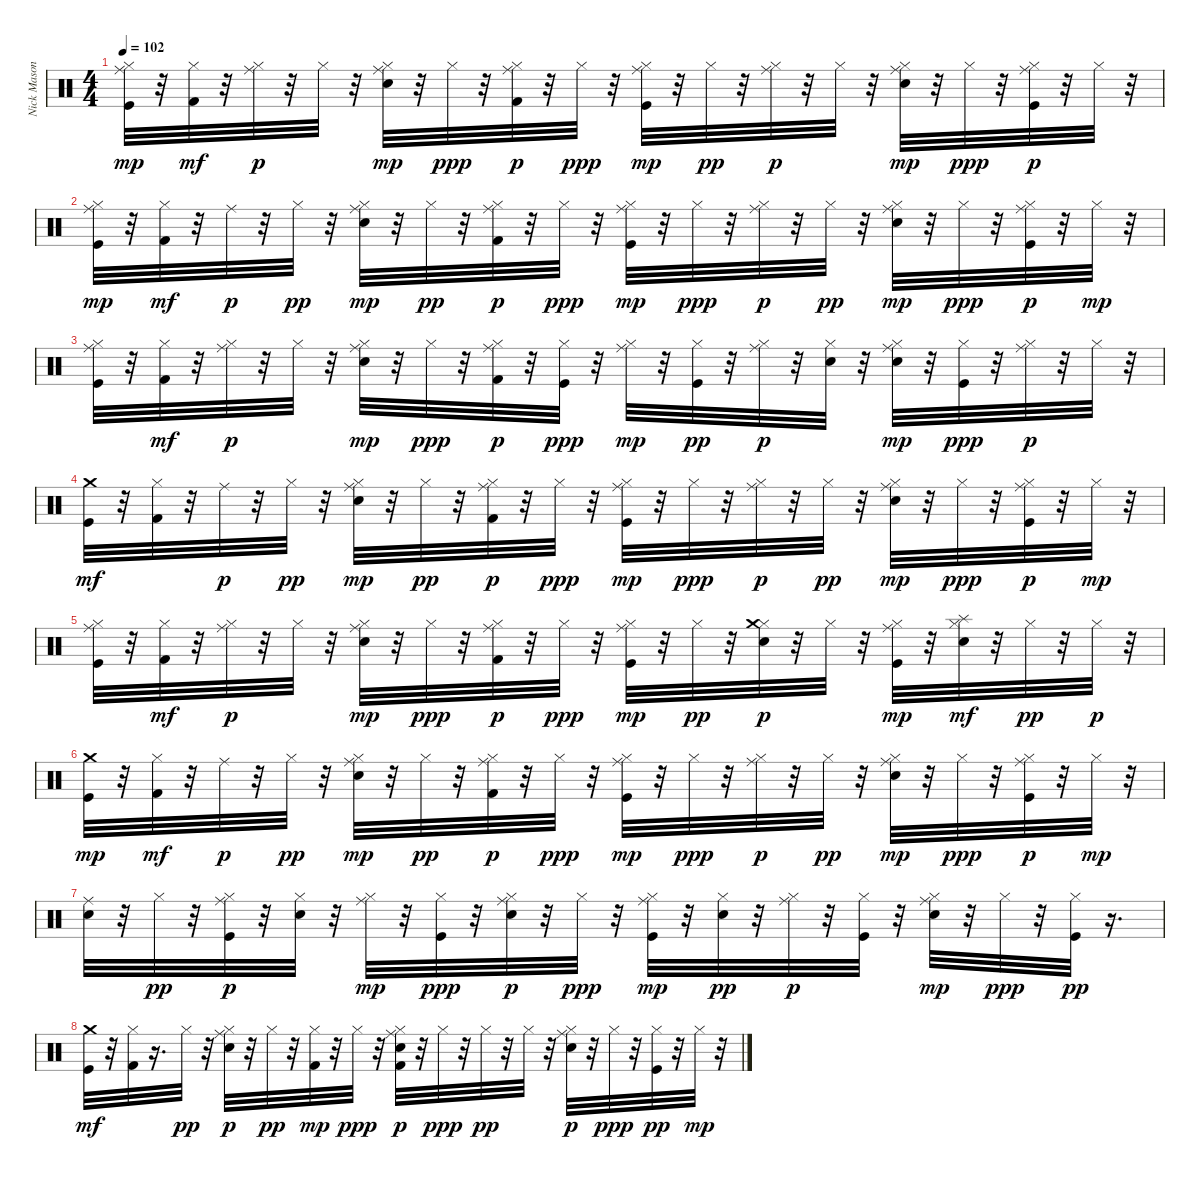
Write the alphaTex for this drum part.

\track ("Nick Mason / Gary Wallis" "Nick Mason") {instrument percussion}
\staff {score}
\articulation defaults
\ts (4 4)
\tempo 102
\clef neutral
\ks c
("Kick (hit)" "Hi-Hat (closed)" "Ride (middle)").32{dy mp} r.32 ("Hi-Hat (closed)" "Kick (hit) 2").32{dy mf} r.32 ("Hi-Hat (closed)" "Ride (middle)").32{dy p} r.32 "Hi-Hat (closed)".32 r.32 ("Electric Snare (hit)" "Hi-Hat (closed)" "Ride (middle)").32{dy mp} r.32 "Hi-Hat (closed)".32{dy ppp} r.32 ("Kick (hit) 2" "Hi-Hat (closed)" "Ride (middle)").32{dy p} r.32 "Hi-Hat (closed)".32{dy ppp} r.32 ("Kick (hit)" "Hi-Hat (closed)" "Ride (middle)").32{dy mp} r.32 "Hi-Hat (closed)".32{dy pp} r.32 ("Hi-Hat (closed)" "Ride (middle)").32{dy p} r.32 "Hi-Hat (closed)".32 r.32 ("Electric Snare (hit)" "Hi-Hat (closed)" "Ride (middle)").32{dy mp} r.32 "Hi-Hat (closed)".32{dy ppp} r.32 ("Kick (hit)" "Hi-Hat (closed)" "Ride (middle)").32{dy p} r.32 "Hi-Hat (closed)".32 r.32 |
("Kick (hit)" "Hi-Hat (closed)" "Ride (middle)").32{dy mp} r.32 ("Hi-Hat (closed)" "Kick (hit) 2").32{dy mf} r.32 "Ride (middle)".32{dy p} r.32 "Hi-Hat (closed)".32{dy pp} r.32 ("Electric Snare (hit)" "Hi-Hat (closed)" "Ride (middle)").32{dy mp} r.32 "Hi-Hat (closed)".32{dy pp} r.32 ("Kick (hit) 2" "Hi-Hat (closed)" "Ride (middle)").32{dy p} r.32 "Hi-Hat (closed)".32{dy ppp} r.32 ("Kick (hit)" "Hi-Hat (closed)" "Ride (middle)").32{dy mp} r.32 "Hi-Hat (closed)".32{dy ppp} r.32 ("Hi-Hat (closed)" "Ride (middle)").32{dy p} r.32 "Hi-Hat (closed)".32{dy pp} r.32 ("Electric Snare (hit)" "Hi-Hat (closed)" "Ride (middle)").32{dy mp} r.32 "Hi-Hat (closed)".32{dy ppp} r.32 ("Kick (hit)" "Hi-Hat (closed)" "Ride (middle)").32{dy p} r.32 "Hi-Hat (closed)".32{dy mp} r.32 |
("Kick (hit)" "Hi-Hat (closed)" "Ride (middle)").32 r.32 ("Hi-Hat (closed)" "Kick (hit) 2").32{dy mf} r.32 ("Hi-Hat (closed)" "Ride (middle)").32{dy p} r.32 "Hi-Hat (closed)".32 r.32 ("Electric Snare (hit)" "Hi-Hat (closed)" "Ride (middle)").32{dy mp} r.32 "Hi-Hat (closed)".32{dy ppp} r.32 ("Kick (hit) 2" "Hi-Hat (closed)" "Ride (middle)").32{dy p} r.32 ("Kick (hit)" "Hi-Hat (closed)").32{dy ppp} r.32 ("Hi-Hat (closed)" "Ride (middle)").32{dy mp} r.32 ("Kick (hit)" "Hi-Hat (closed)").32{dy pp} r.32 ("Hi-Hat (closed)" "Ride (middle)").32{dy p} r.32 ("Electric Snare (hit)" "Hi-Hat (closed)").32 r.32 ("Electric Snare (hit)" "Hi-Hat (closed)" "Ride (middle)").32{dy mp} r.32 ("Kick (hit)" "Hi-Hat (closed)").32{dy ppp} r.32 ("Hi-Hat (closed)" "Ride (middle)").32{dy p} r.32 "Hi-Hat (closed)".32 r.32 |
("Kick (hit)" "Crash medium (hit)").32{dy mf} r.32 ("Hi-Hat (closed)" "Kick (hit) 2").32 r.32 "Ride (middle)".32{dy p} r.32 "Hi-Hat (closed)".32{dy pp} r.32 ("Electric Snare (hit)" "Hi-Hat (closed)" "Ride (middle)").32{dy mp} r.32 "Hi-Hat (closed)".32{dy pp} r.32 ("Kick (hit) 2" "Hi-Hat (closed)" "Ride (middle)").32{dy p} r.32 "Hi-Hat (closed)".32{dy ppp} r.32 ("Kick (hit)" "Hi-Hat (closed)" "Ride (middle)").32{dy mp} r.32 "Hi-Hat (closed)".32{dy ppp} r.32 ("Hi-Hat (closed)" "Ride (middle)").32{dy p} r.32 "Hi-Hat (closed)".32{dy pp} r.32 ("Electric Snare (hit)" "Hi-Hat (closed)" "Ride (middle)").32{dy mp} r.32 "Hi-Hat (closed)".32{dy ppp} r.32 ("Kick (hit)" "Hi-Hat (closed)" "Ride (middle)").32{dy p} r.32 "Hi-Hat (closed)".32{dy mp} r.32 |
("Kick (hit)" "Hi-Hat (closed)" "Ride (middle)").32 r.32 ("Hi-Hat (closed)" "Kick (hit) 2").32{dy mf} r.32 ("Hi-Hat (closed)" "Ride (middle)").32{dy p} r.32 "Hi-Hat (closed)".32 r.32 ("Electric Snare (hit)" "Hi-Hat (closed)" "Ride (middle)").32{dy mp} r.32 "Hi-Hat (closed)".32{dy ppp} r.32 ("Kick (hit) 2" "Hi-Hat (closed)" "Ride (middle)").32{dy p} r.32 "Hi-Hat (closed)".32{dy ppp} r.32 ("Kick (hit)" "Hi-Hat (closed)" "Ride (middle)").32{dy mp} r.32 "Hi-Hat (closed)".32{dy pp} r.32 ("Electric Snare (hit)" "Hi-Hat (closed)" "Crash medium (hit)").32{dy p} r.32 "Hi-Hat (closed)".32 r.32 ("Kick (hit)" "Hi-Hat (closed)" "Ride (middle)").32{dy mp} r.32 ("Electric Snare (hit)" "Hi-Hat (closed)" "Splash (hit)").32{dy mf} r.32 "Hi-Hat (closed)".32{dy pp} r.32 "Hi-Hat (closed)".32{dy p} r.32 |
("Kick (hit)" "Crash medium (hit)").32{dy mp} r.32 ("Hi-Hat (closed)" "Kick (hit) 2").32{dy mf} r.32 "Ride (middle)".32{dy p} r.32 "Hi-Hat (closed)".32{dy pp} r.32 ("Electric Snare (hit)" "Hi-Hat (closed)" "Ride (middle)").32{dy mp} r.32 "Hi-Hat (closed)".32{dy pp} r.32 ("Kick (hit) 2" "Hi-Hat (closed)" "Ride (middle)").32{dy p} r.32 "Hi-Hat (closed)".32{dy ppp} r.32 ("Kick (hit)" "Hi-Hat (closed)" "Ride (middle)").32{dy mp} r.32 "Hi-Hat (closed)".32{dy ppp} r.32 ("Hi-Hat (closed)" "Ride (middle)").32{dy p} r.32 "Hi-Hat (closed)".32{dy pp} r.32 ("Electric Snare (hit)" "Hi-Hat (closed)" "Ride (middle)").32{dy mp} r.32 "Hi-Hat (closed)".32{dy ppp} r.32 ("Kick (hit)" "Hi-Hat (closed)" "Ride (middle)").32{dy p} r.32 "Hi-Hat (closed)".32{dy mp} r.32 |
("Electric Snare (hit)" "Ride (middle)").32 r.32 "Hi-Hat (closed)".32{dy pp} r.32 ("Kick (hit)" "Hi-Hat (closed)" "Ride (middle)").32{dy p} r.32 ("Electric Snare (hit)" "Hi-Hat (closed)").32 r.32 ("Hi-Hat (closed)" "Ride (middle)").32{dy mp} r.32 ("Kick (hit)" "Hi-Hat (closed)").32{dy ppp} r.32 ("Electric Snare (hit)" "Hi-Hat (closed)" "Ride (middle)").32{dy p} r.32 "Hi-Hat (closed)".32{dy ppp} r.32 ("Kick (hit)" "Hi-Hat (closed)" "Ride (middle)").32{dy mp} r.32 ("Electric Snare (hit)" "Hi-Hat (closed)").32{dy pp} r.32 ("Hi-Hat (closed)" "Ride (middle)").32{dy p} r.32 ("Kick (hit)" "Hi-Hat (closed)").32 r.32 ("Electric Snare (hit)" "Hi-Hat (closed)" "Ride (middle)").32{dy mp} r.32 "Hi-Hat (closed)".32{dy ppp} r.32 ("Kick (hit)" "Hi-Hat (closed)").32{dy pp} r.16{d} |
("Kick (hit)" "Crash medium (hit)").32{dy mf} r.32 ("Hi-Hat (closed)" "Kick (hit) 2").32 r.16{d} "Hi-Hat (closed)".32{dy pp} r.32 ("Snare (hit) 2" "Hi-Hat (closed)" "Ride (middle)").32{dy p} r.32 "Hi-Hat (closed)".32{dy pp} r.32 ("Kick (hit) 2" "Hi-Hat (closed)").32{dy mp} r.32 "Hi-Hat (closed)".32{dy ppp} r.32 ("Kick (hit) 2" "Electric Snare (hit)" "Hi-Hat (closed)" "Ride (middle)").32{dy p} r.32 "Hi-Hat (closed)".32{dy ppp} r.32 "Hi-Hat (closed)".32{dy pp} r.32 "Hi-Hat (closed)".32 r.32 ("Snare (hit) 2" "Hi-Hat (closed)" "Ride (middle)").32{dy p} r.32 "Hi-Hat (closed)".32{dy ppp} r.32 ("Kick (hit)" "Hi-Hat (closed)").32{dy pp} r.32 "Hi-Hat (closed)".32{dy mp} r.32
